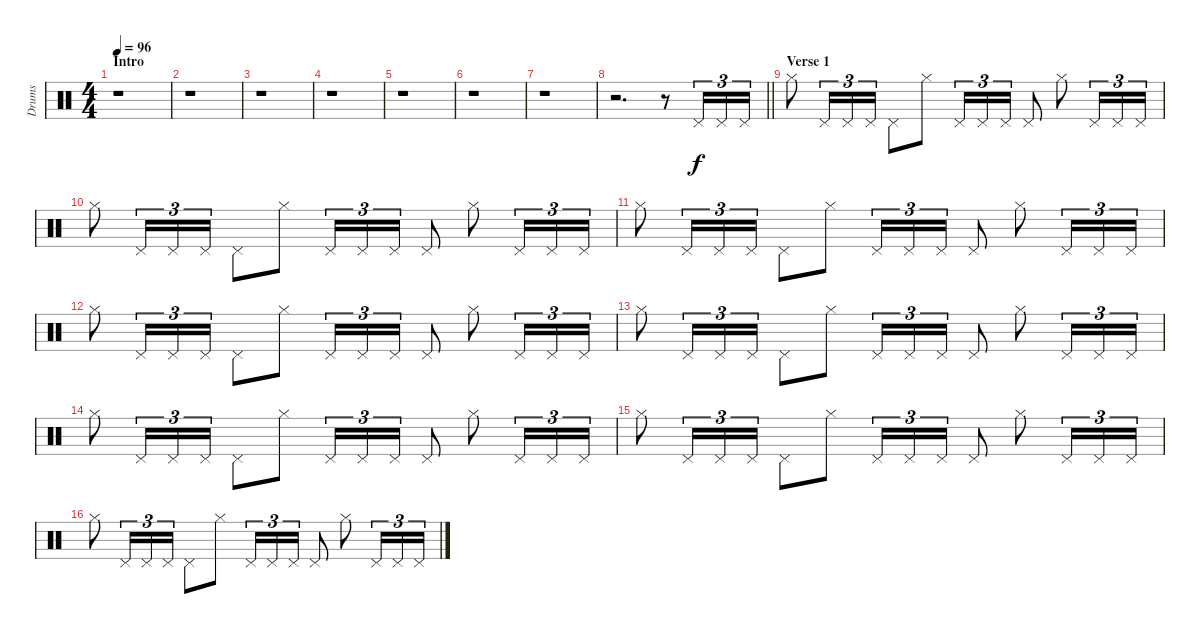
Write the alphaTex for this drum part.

\track ("Drums" "Drums") {instrument percussion}
\staff {score}
\articulation defaults
\ts (4 4)
\section ("" "Intro")
\tempo 96
\clef neutral
\ks c
r.1{dy f} |
r.1 |
r.1 |
r.1 |
r.1 |
r.1 |
r.1 |
\barLineRight lightlight
r.2{d} r.8 "Pedal Hi-Hat (hit)".16{tu (3 2)} "Pedal Hi-Hat (hit)".16{tu (3 2)} "Pedal Hi-Hat (hit)".16{tu (3 2)} |
\section ("" "Verse 1")
"Hi-Hat (closed)".8 "Pedal Hi-Hat (hit)".16{tu (3 2)} "Pedal Hi-Hat (hit)".16{tu (3 2)} "Pedal Hi-Hat (hit)".16{tu (3 2)} "Pedal Hi-Hat (hit)".8 "Hi-Hat (closed)".8 "Pedal Hi-Hat (hit)".16{tu (3 2)} "Pedal Hi-Hat (hit)".16{tu (3 2)} "Pedal Hi-Hat (hit)".16{tu (3 2)} "Pedal Hi-Hat (hit)".8 "Hi-Hat (closed)".8 "Pedal Hi-Hat (hit)".16{tu (3 2)} "Pedal Hi-Hat (hit)".16{tu (3 2)} "Pedal Hi-Hat (hit)".16{tu (3 2)} |
"Hi-Hat (closed)".8 "Pedal Hi-Hat (hit)".16{tu (3 2)} "Pedal Hi-Hat (hit)".16{tu (3 2)} "Pedal Hi-Hat (hit)".16{tu (3 2)} "Pedal Hi-Hat (hit)".8 "Hi-Hat (closed)".8 "Pedal Hi-Hat (hit)".16{tu (3 2)} "Pedal Hi-Hat (hit)".16{tu (3 2)} "Pedal Hi-Hat (hit)".16{tu (3 2)} "Pedal Hi-Hat (hit)".8 "Hi-Hat (closed)".8 "Pedal Hi-Hat (hit)".16{tu (3 2)} "Pedal Hi-Hat (hit)".16{tu (3 2)} "Pedal Hi-Hat (hit)".16{tu (3 2)} |
"Hi-Hat (closed)".8 "Pedal Hi-Hat (hit)".16{tu (3 2)} "Pedal Hi-Hat (hit)".16{tu (3 2)} "Pedal Hi-Hat (hit)".16{tu (3 2)} "Pedal Hi-Hat (hit)".8 "Hi-Hat (closed)".8 "Pedal Hi-Hat (hit)".16{tu (3 2)} "Pedal Hi-Hat (hit)".16{tu (3 2)} "Pedal Hi-Hat (hit)".16{tu (3 2)} "Pedal Hi-Hat (hit)".8 "Hi-Hat (closed)".8 "Pedal Hi-Hat (hit)".16{tu (3 2)} "Pedal Hi-Hat (hit)".16{tu (3 2)} "Pedal Hi-Hat (hit)".16{tu (3 2)} |
"Hi-Hat (closed)".8 "Pedal Hi-Hat (hit)".16{tu (3 2)} "Pedal Hi-Hat (hit)".16{tu (3 2)} "Pedal Hi-Hat (hit)".16{tu (3 2)} "Pedal Hi-Hat (hit)".8 "Hi-Hat (closed)".8 "Pedal Hi-Hat (hit)".16{tu (3 2)} "Pedal Hi-Hat (hit)".16{tu (3 2)} "Pedal Hi-Hat (hit)".16{tu (3 2)} "Pedal Hi-Hat (hit)".8 "Hi-Hat (closed)".8 "Pedal Hi-Hat (hit)".16{tu (3 2)} "Pedal Hi-Hat (hit)".16{tu (3 2)} "Pedal Hi-Hat (hit)".16{tu (3 2)} |
"Hi-Hat (closed)".8 "Pedal Hi-Hat (hit)".16{tu (3 2)} "Pedal Hi-Hat (hit)".16{tu (3 2)} "Pedal Hi-Hat (hit)".16{tu (3 2)} "Pedal Hi-Hat (hit)".8 "Hi-Hat (closed)".8 "Pedal Hi-Hat (hit)".16{tu (3 2)} "Pedal Hi-Hat (hit)".16{tu (3 2)} "Pedal Hi-Hat (hit)".16{tu (3 2)} "Pedal Hi-Hat (hit)".8 "Hi-Hat (closed)".8 "Pedal Hi-Hat (hit)".16{tu (3 2)} "Pedal Hi-Hat (hit)".16{tu (3 2)} "Pedal Hi-Hat (hit)".16{tu (3 2)} |
"Hi-Hat (closed)".8 "Pedal Hi-Hat (hit)".16{tu (3 2)} "Pedal Hi-Hat (hit)".16{tu (3 2)} "Pedal Hi-Hat (hit)".16{tu (3 2)} "Pedal Hi-Hat (hit)".8 "Hi-Hat (closed)".8 "Pedal Hi-Hat (hit)".16{tu (3 2)} "Pedal Hi-Hat (hit)".16{tu (3 2)} "Pedal Hi-Hat (hit)".16{tu (3 2)} "Pedal Hi-Hat (hit)".8 "Hi-Hat (closed)".8 "Pedal Hi-Hat (hit)".16{tu (3 2)} "Pedal Hi-Hat (hit)".16{tu (3 2)} "Pedal Hi-Hat (hit)".16{tu (3 2)} |
"Hi-Hat (closed)".8 "Pedal Hi-Hat (hit)".16{tu (3 2)} "Pedal Hi-Hat (hit)".16{tu (3 2)} "Pedal Hi-Hat (hit)".16{tu (3 2)} "Pedal Hi-Hat (hit)".8 "Hi-Hat (closed)".8 "Pedal Hi-Hat (hit)".16{tu (3 2)} "Pedal Hi-Hat (hit)".16{tu (3 2)} "Pedal Hi-Hat (hit)".16{tu (3 2)} "Pedal Hi-Hat (hit)".8 "Hi-Hat (closed)".8 "Pedal Hi-Hat (hit)".16{tu (3 2)} "Pedal Hi-Hat (hit)".16{tu (3 2)} "Pedal Hi-Hat (hit)".16{tu (3 2)} |
"Hi-Hat (closed)".8 "Pedal Hi-Hat (hit)".16{tu (3 2)} "Pedal Hi-Hat (hit)".16{tu (3 2)} "Pedal Hi-Hat (hit)".16{tu (3 2)} "Pedal Hi-Hat (hit)".8 "Hi-Hat (closed)".8 "Pedal Hi-Hat (hit)".16{tu (3 2)} "Pedal Hi-Hat (hit)".16{tu (3 2)} "Pedal Hi-Hat (hit)".16{tu (3 2)} "Pedal Hi-Hat (hit)".8 "Hi-Hat (closed)".8 "Pedal Hi-Hat (hit)".16{tu (3 2)} "Pedal Hi-Hat (hit)".16{tu (3 2)} "Pedal Hi-Hat (hit)".16{tu (3 2)}
